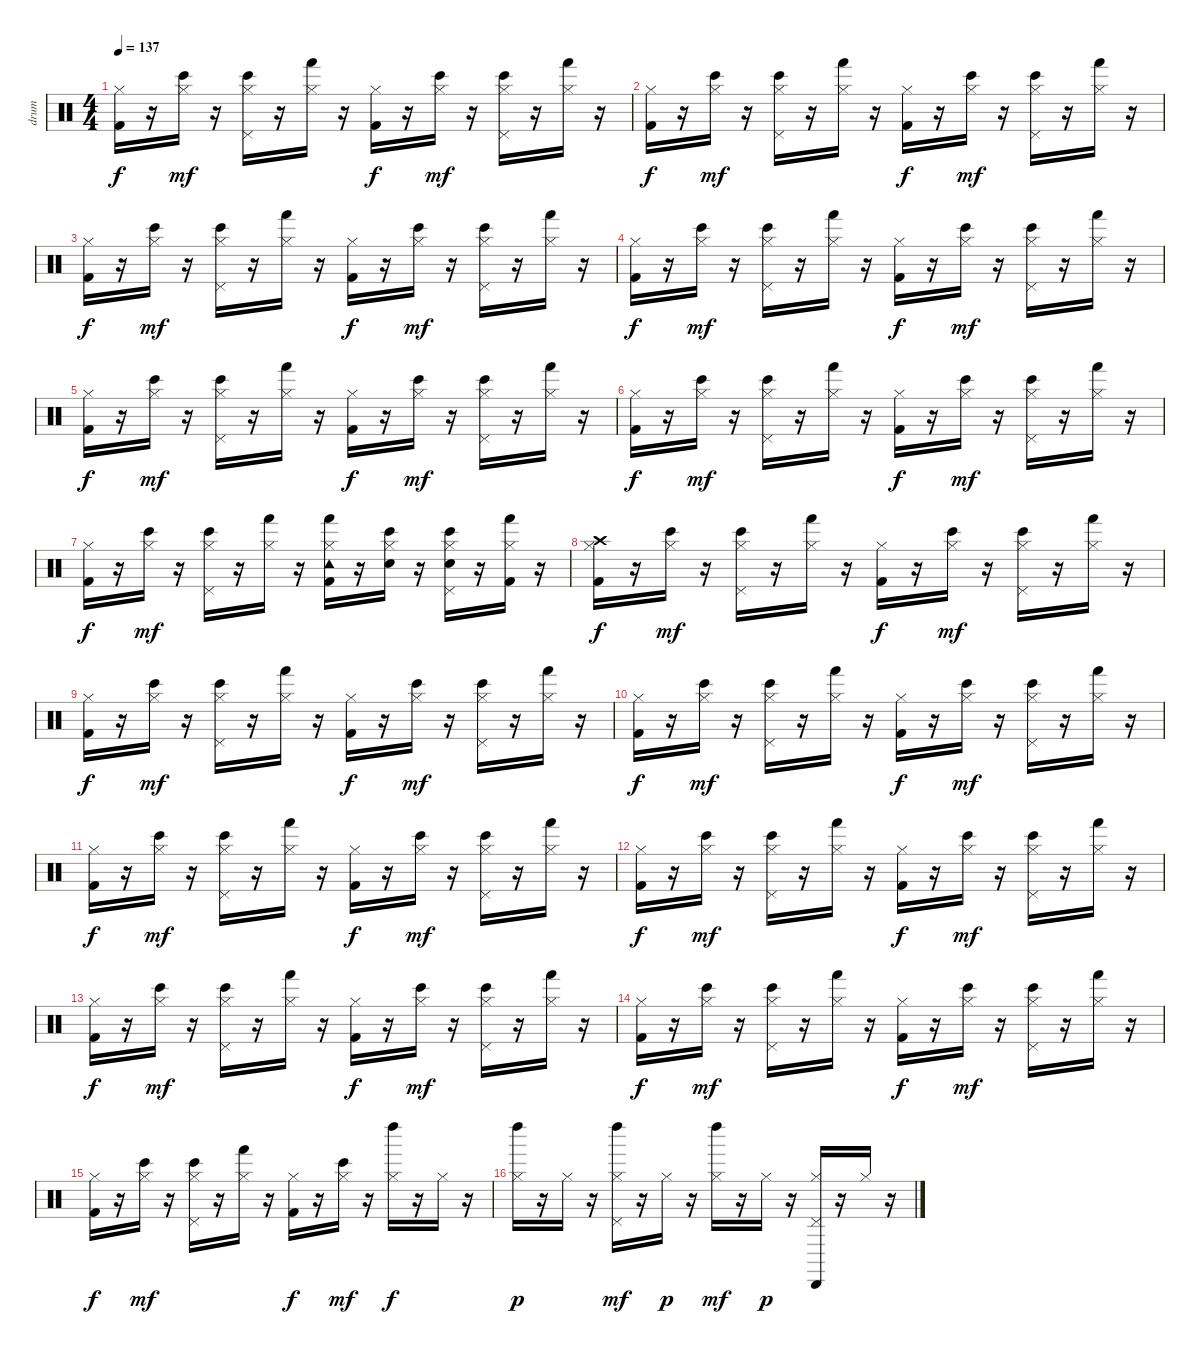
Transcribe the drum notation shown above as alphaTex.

\track ("drum" "drum") {instrument percussion}
\staff {score}
\articulation defaults
\ts (4 4)
\tempo 137
\clef neutral
\ks c
("Kick (hit) 2" "Hi-Hat (closed)").16{dy f} r.16 ("Hi-Hat (closed)" "Bongo High (hit)").16{dy mf} r.16 ("Bongo High (hit)" "Hi-Hat (closed)" "Pedal Hi-Hat (hit)").16 r.16 ("Hi-Hat (closed)" "Hand (hit)").16 r.16 ("Kick (hit) 2" "Hi-Hat (closed)").16{dy f} r.16 ("Bongo High (hit)" "Hi-Hat (closed)").16{dy mf} r.16 ("Hi-Hat (closed)" "Bongo High (hit)" "Pedal Hi-Hat (hit)").16 r.16 ("Hand (hit)" "Hi-Hat (closed)").16 r.16 |
("Kick (hit) 2" "Hi-Hat (closed)").16{dy f} r.16 ("Hi-Hat (closed)" "Bongo High (hit)").16{dy mf} r.16 ("Hi-Hat (closed)" "Bongo High (hit)" "Pedal Hi-Hat (hit)").16 r.16 ("Hand (hit)" "Hi-Hat (closed)").16 r.16 ("Hi-Hat (closed)" "Kick (hit) 2").16{dy f} r.16 ("Bongo High (hit)" "Hi-Hat (closed)").16{dy mf} r.16 ("Hi-Hat (closed)" "Bongo High (hit)" "Pedal Hi-Hat (hit)").16 r.16 ("Hi-Hat (closed)" "Hand (hit)").16 r.16 |
("Kick (hit) 2" "Hi-Hat (closed)").16{dy f} r.16 ("Hi-Hat (closed)" "Bongo High (hit)").16{dy mf} r.16 ("Hi-Hat (closed)" "Bongo High (hit)" "Pedal Hi-Hat (hit)").16 r.16 ("Hi-Hat (closed)" "Hand (hit)").16 r.16 ("Hi-Hat (closed)" "Kick (hit) 2").16{dy f} r.16 ("Bongo High (hit)" "Hi-Hat (closed)").16{dy mf} r.16 ("Bongo High (hit)" "Hi-Hat (closed)" "Pedal Hi-Hat (hit)").16 r.16 ("Hand (hit)" "Hi-Hat (closed)").16 r.16 |
("Kick (hit) 2" "Hi-Hat (closed)").16{dy f} r.16 ("Hi-Hat (closed)" "Bongo High (hit)").16{dy mf} r.16 ("Bongo High (hit)" "Hi-Hat (closed)" "Pedal Hi-Hat (hit)").16 r.16 ("Hi-Hat (closed)" "Hand (hit)").16 r.16 ("Kick (hit) 2" "Hi-Hat (closed)").16{dy f} r.16 ("Bongo High (hit)" "Hi-Hat (closed)").16{dy mf} r.16 ("Bongo High (hit)" "Hi-Hat (closed)" "Pedal Hi-Hat (hit)").16 r.16 ("Hand (hit)" "Hi-Hat (closed)").16 r.16 |
("Hi-Hat (closed)" "Kick (hit) 2").16{dy f} r.16 ("Bongo High (hit)" "Hi-Hat (closed)").16{dy mf} r.16 ("Hi-Hat (closed)" "Bongo High (hit)" "Pedal Hi-Hat (hit)").16 r.16 ("Hi-Hat (closed)" "Hand (hit)").16 r.16 ("Kick (hit) 2" "Hi-Hat (closed)").16{dy f} r.16 ("Bongo High (hit)" "Hi-Hat (closed)").16{dy mf} r.16 ("Hi-Hat (closed)" "Bongo High (hit)" "Pedal Hi-Hat (hit)").16 r.16 ("Hi-Hat (closed)" "Hand (hit)").16 r.16 |
("Hi-Hat (closed)" "Kick (hit) 2").16{dy f} r.16 ("Bongo High (hit)" "Hi-Hat (closed)").16{dy mf} r.16 ("Hi-Hat (closed)" "Bongo High (hit)" "Pedal Hi-Hat (hit)").16 r.16 ("Hi-Hat (closed)" "Hand (hit)").16 r.16 ("Hi-Hat (closed)" "Kick (hit) 2").16{dy f} r.16 ("Hi-Hat (closed)" "Bongo High (hit)").16{dy mf} r.16 ("Hi-Hat (closed)" "Bongo High (hit)" "Pedal Hi-Hat (hit)").16 r.16 ("Hi-Hat (closed)" "Hand (hit)").16 r.16 |
("Kick (hit) 2" "Hi-Hat (closed)").16{dy f} r.16 ("Bongo High (hit)" "Hi-Hat (closed)").16{dy mf} r.16 ("Bongo High (hit)" "Hi-Hat (closed)" "Pedal Hi-Hat (hit)").16 r.16 ("Hi-Hat (closed)" "Hand (hit)").16 r.16 ("Tambourine (hit)" "Kick (hit) 2" "Hand (hit)" "Hi-Hat (closed)").16 r.16 ("Snare (hit) 2" "Bongo High (hit)" "Hi-Hat (closed)").16 r.16 ("Bongo High (hit)" "Snare (hit) 2" "Hi-Hat (closed)" "Pedal Hi-Hat (hit)").16 r.16 ("Hand (hit)" "Hi-Hat (closed)" "Kick (hit) 2").16 r.16 |
("Hi-Hat (closed)" "Kick (hit) 2" "Crash high (hit)").16{dy f} r.16 ("Hi-Hat (closed)" "Bongo High (hit)").16{dy mf} r.16 ("Hi-Hat (closed)" "Bongo High (hit)" "Pedal Hi-Hat (hit)").16 r.16 ("Hi-Hat (closed)" "Hand (hit)").16 r.16 ("Hi-Hat (closed)" "Kick (hit) 2").16{dy f} r.16 ("Hi-Hat (closed)" "Bongo High (hit)").16{dy mf} r.16 ("Bongo High (hit)" "Hi-Hat (closed)" "Pedal Hi-Hat (hit)").16 r.16 ("Hand (hit)" "Hi-Hat (closed)").16 r.16 |
("Hi-Hat (closed)" "Kick (hit) 2").16{dy f} r.16 ("Bongo High (hit)" "Hi-Hat (closed)").16{dy mf} r.16 ("Hi-Hat (closed)" "Bongo High (hit)" "Pedal Hi-Hat (hit)").16 r.16 ("Hand (hit)" "Hi-Hat (closed)").16 r.16 ("Kick (hit) 2" "Hi-Hat (closed)").16{dy f} r.16 ("Hi-Hat (closed)" "Bongo High (hit)").16{dy mf} r.16 ("Bongo High (hit)" "Hi-Hat (closed)" "Pedal Hi-Hat (hit)").16 r.16 ("Hand (hit)" "Hi-Hat (closed)").16 r.16 |
("Kick (hit) 2" "Hi-Hat (closed)").16{dy f} r.16 ("Bongo High (hit)" "Hi-Hat (closed)").16{dy mf} r.16 ("Bongo High (hit)" "Hi-Hat (closed)" "Pedal Hi-Hat (hit)").16 r.16 ("Hi-Hat (closed)" "Hand (hit)").16 r.16 ("Kick (hit) 2" "Hi-Hat (closed)").16{dy f} r.16 ("Hi-Hat (closed)" "Bongo High (hit)").16{dy mf} r.16 ("Hi-Hat (closed)" "Bongo High (hit)" "Pedal Hi-Hat (hit)").16 r.16 ("Hand (hit)" "Hi-Hat (closed)").16 r.16 |
("Kick (hit) 2" "Hi-Hat (closed)").16{dy f} r.16 ("Bongo High (hit)" "Hi-Hat (closed)").16{dy mf} r.16 ("Bongo High (hit)" "Hi-Hat (closed)" "Pedal Hi-Hat (hit)").16 r.16 ("Hand (hit)" "Hi-Hat (closed)").16 r.16 ("Hi-Hat (closed)" "Kick (hit) 2").16{dy f} r.16 ("Bongo High (hit)" "Hi-Hat (closed)").16{dy mf} r.16 ("Bongo High (hit)" "Hi-Hat (closed)" "Pedal Hi-Hat (hit)").16 r.16 ("Hi-Hat (closed)" "Hand (hit)").16 r.16 |
("Kick (hit) 2" "Hi-Hat (closed)").16{dy f} r.16 ("Bongo High (hit)" "Hi-Hat (closed)").16{dy mf} r.16 ("Bongo High (hit)" "Hi-Hat (closed)" "Pedal Hi-Hat (hit)").16 r.16 ("Hi-Hat (closed)" "Hand (hit)").16 r.16 ("Hi-Hat (closed)" "Kick (hit) 2").16{dy f} r.16 ("Hi-Hat (closed)" "Bongo High (hit)").16{dy mf} r.16 ("Hi-Hat (closed)" "Bongo High (hit)" "Pedal Hi-Hat (hit)").16 r.16 ("Hi-Hat (closed)" "Hand (hit)").16 r.16 |
("Kick (hit) 2" "Hi-Hat (closed)").16{dy f} r.16 ("Hi-Hat (closed)" "Bongo High (hit)").16{dy mf} r.16 ("Hi-Hat (closed)" "Bongo High (hit)" "Pedal Hi-Hat (hit)").16 r.16 ("Hi-Hat (closed)" "Hand (hit)").16 r.16 ("Kick (hit) 2" "Hi-Hat (closed)").16{dy f} r.16 ("Hi-Hat (closed)" "Bongo High (hit)").16{dy mf} r.16 ("Bongo High (hit)" "Hi-Hat (closed)" "Pedal Hi-Hat (hit)").16 r.16 ("Hand (hit)" "Hi-Hat (closed)").16 r.16 |
("Hi-Hat (closed)" "Kick (hit) 2").16{dy f} r.16 ("Bongo High (hit)" "Hi-Hat (closed)").16{dy mf} r.16 ("Bongo High (hit)" "Hi-Hat (closed)" "Pedal Hi-Hat (hit)").16 r.16 ("Hand (hit)" "Hi-Hat (closed)").16 r.16 ("Hi-Hat (closed)" "Kick (hit) 2").16{dy f} r.16 ("Hi-Hat (closed)" "Bongo High (hit)").16{dy mf} r.16 ("Bongo High (hit)" "Hi-Hat (closed)" "Pedal Hi-Hat (hit)").16 r.16 ("Hand (hit)" "Hi-Hat (closed)").16 r.16 |
("Kick (hit) 2" "Hi-Hat (closed)").16{dy f} r.16 ("Bongo High (hit)" "Hi-Hat (closed)").16{dy mf} r.16 ("Bongo High (hit)" "Hi-Hat (closed)" "Pedal Hi-Hat (hit)").16 r.16 ("Hand (hit)" "Hi-Hat (closed)").16 r.16 ("Hi-Hat (closed)" "Kick (hit) 2").16{dy f} r.16 ("Bongo High (hit)" "Hi-Hat (closed)").16{dy mf} r.16 ("Left Maraca (hit)" "Hi-Hat (closed)").16{dy f} r.16 "Hi-Hat (closed)".16 r.16 |
("Left Maraca (hit)" "Hi-Hat (closed)").16{dy p} r.16 "Hi-Hat (closed)".16 r.16 ("Hi-Hat (closed)" "Left Maraca (hit)" "Pedal Hi-Hat (hit)").16{dy mf} r.16 "Hi-Hat (closed)".16{dy p} r.16 ("Hi-Hat (closed)" "Left Maraca (hit)").16{dy mf} r.16 "Hi-Hat (closed)".16{dy p} r.16 ("Cabasa (hit)" "Hi-Hat (closed)" "Pedal Hi-Hat (hit)").16 r.16 "Hi-Hat (closed)".16 r.16
